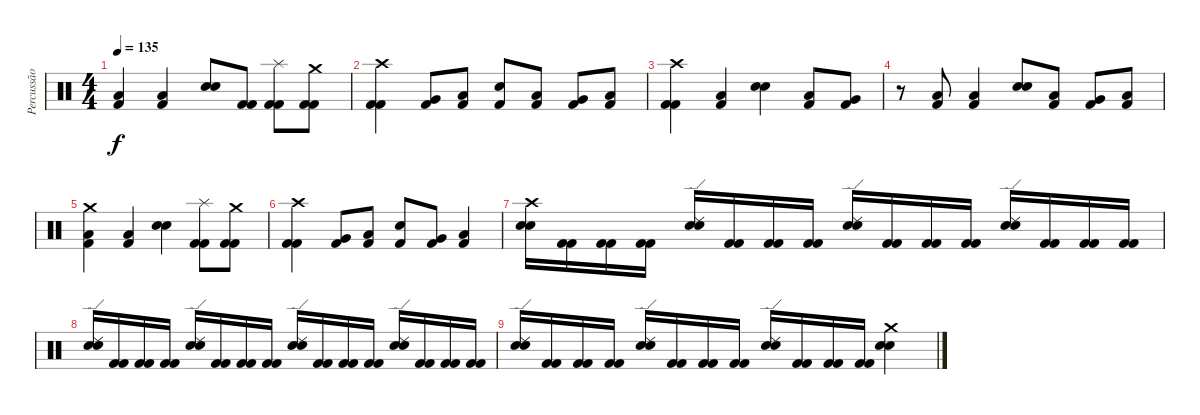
\track ("Percussão" "Percussão") {instrument percussion}
\staff {score}
\articulation defaults
\ts (4 4)
\tempo 135
\clef neutral
\ks c
("Low Floor Tom (hit)" "Kick (hit) 2").4{dy f} ("Low Floor Tom (hit)" "Kick (hit) 2").4 ("Electric Snare (hit)" "Electric Snare (hit)").8 ("Kick (hit) 2" "Kick (hit) 2").8 ("Splash (hit)" "Kick (hit) 2" "Kick (hit) 2").8 ("Crash medium (hit)" "Kick (hit) 2" "Kick (hit) 2").8 |
("Crash high (hit)" "Kick (hit) 2" "Kick (hit) 2").4 ("Very Low Tom (hit)" "Kick (hit) 2").8 ("Low Floor Tom (hit)" "Kick (hit) 2").8 ("Electric Snare (hit)" "Kick (hit) 2").8 ("Low Floor Tom (hit)" "Kick (hit) 2").8 ("Very Low Tom (hit)" "Kick (hit) 2").8 ("Low Floor Tom (hit)" "Kick (hit) 2").8 |
("Crash high (hit)" "Kick (hit) 2" "Kick (hit) 2").4 ("Low Tom (hit)" "Kick (hit) 2").4 ("Electric Snare (hit)" "Electric Snare (hit)").4 ("Low Tom (hit)" "Kick (hit) 2").8 ("Very Low Tom (hit)" "Kick (hit) 2").8 |
r.8 ("Low Floor Tom (hit)" "Kick (hit) 2").8 ("Low Floor Tom (hit)" "Kick (hit) 2").4 ("Electric Snare (hit)" "Electric Snare (hit)").8 ("Low Floor Tom (hit)" "Kick (hit) 2").8 ("Very Low Tom (hit)" "Kick (hit) 2").8 ("Low Floor Tom (hit)" "Kick (hit) 2").8 |
("Crash medium (hit)" "Low Floor Tom (hit)" "Kick (hit) 2").4 ("Low Floor Tom (hit)" "Kick (hit) 2").4 ("Electric Snare (hit)" "Electric Snare (hit)").4 ("Splash (hit)" "Kick (hit) 2" "Kick (hit) 2").8 ("Crash medium (hit)" "Kick (hit) 2" "Kick (hit) 2").8 |
("Crash high (hit)" "Kick (hit) 2" "Kick (hit) 2").4 ("Very Low Tom (hit)" "Kick (hit) 2").8 ("Low Floor Tom (hit)" "Kick (hit) 2").8 ("Electric Snare (hit)" "Kick (hit) 2").8 ("Very Low Tom (hit)" "Kick (hit) 2").8 ("Low Floor Tom (hit)" "Kick (hit) 2").4 |
("Crash high (hit)" "Electric Snare (hit)" "Electric Snare (hit)").16 ("Kick (hit) 2" "Kick (hit) 2").16 ("Kick (hit) 2" "Kick (hit) 2").16 ("Kick (hit) 2" "Kick (hit) 2").16 ("Ride (edge) 2" "Electric Snare (hit)" "Electric Snare (hit)").16 ("Kick (hit) 2" "Kick (hit) 2").16 ("Kick (hit) 2" "Kick (hit) 2").16 ("Kick (hit) 2" "Kick (hit) 2").16 ("Ride (edge) 2" "Electric Snare (hit)" "Electric Snare (hit)").16 ("Kick (hit) 2" "Kick (hit) 2").16 ("Kick (hit) 2" "Kick (hit) 2").16 ("Kick (hit) 2" "Kick (hit) 2").16 ("Ride (edge) 2" "Electric Snare (hit)" "Electric Snare (hit)").16 ("Kick (hit) 2" "Kick (hit) 2").16 ("Kick (hit) 2" "Kick (hit) 2").16 ("Kick (hit) 2" "Kick (hit) 2").16 |
("Ride (edge) 2" "Electric Snare (hit)" "Electric Snare (hit)").16 ("Kick (hit) 2" "Kick (hit) 2").16 ("Kick (hit) 2" "Kick (hit) 2").16 ("Kick (hit) 2" "Kick (hit) 2").16 ("Ride (edge) 2" "Electric Snare (hit)" "Electric Snare (hit)").16 ("Kick (hit) 2" "Kick (hit) 2").16 ("Kick (hit) 2" "Kick (hit) 2").16 ("Kick (hit) 2" "Kick (hit) 2").16 ("Ride (edge) 2" "Electric Snare (hit)" "Electric Snare (hit)").16 ("Kick (hit) 2" "Kick (hit) 2").16 ("Kick (hit) 2" "Kick (hit) 2").16 ("Kick (hit) 2" "Kick (hit) 2").16 ("Ride (edge) 2" "Electric Snare (hit)" "Electric Snare (hit)").16 ("Kick (hit) 2" "Kick (hit) 2").16 ("Kick (hit) 2" "Kick (hit) 2").16 ("Kick (hit) 2" "Kick (hit) 2").16 |
("Ride (edge) 2" "Electric Snare (hit)" "Electric Snare (hit)").16 ("Kick (hit) 2" "Kick (hit) 2").16 ("Kick (hit) 2" "Kick (hit) 2").16 ("Kick (hit) 2" "Kick (hit) 2").16 ("Ride (edge) 2" "Electric Snare (hit)" "Electric Snare (hit)").16 ("Kick (hit) 2" "Kick (hit) 2").16 ("Kick (hit) 2" "Kick (hit) 2").16 ("Kick (hit) 2" "Kick (hit) 2").16 ("Ride (edge) 2" "Electric Snare (hit)" "Electric Snare (hit)").16 ("Kick (hit) 2" "Kick (hit) 2").16 ("Kick (hit) 2" "Kick (hit) 2").16 ("Kick (hit) 2" "Kick (hit) 2").16 ("Crash medium (hit)" "Electric Snare (hit)" "Electric Snare (hit)").4
